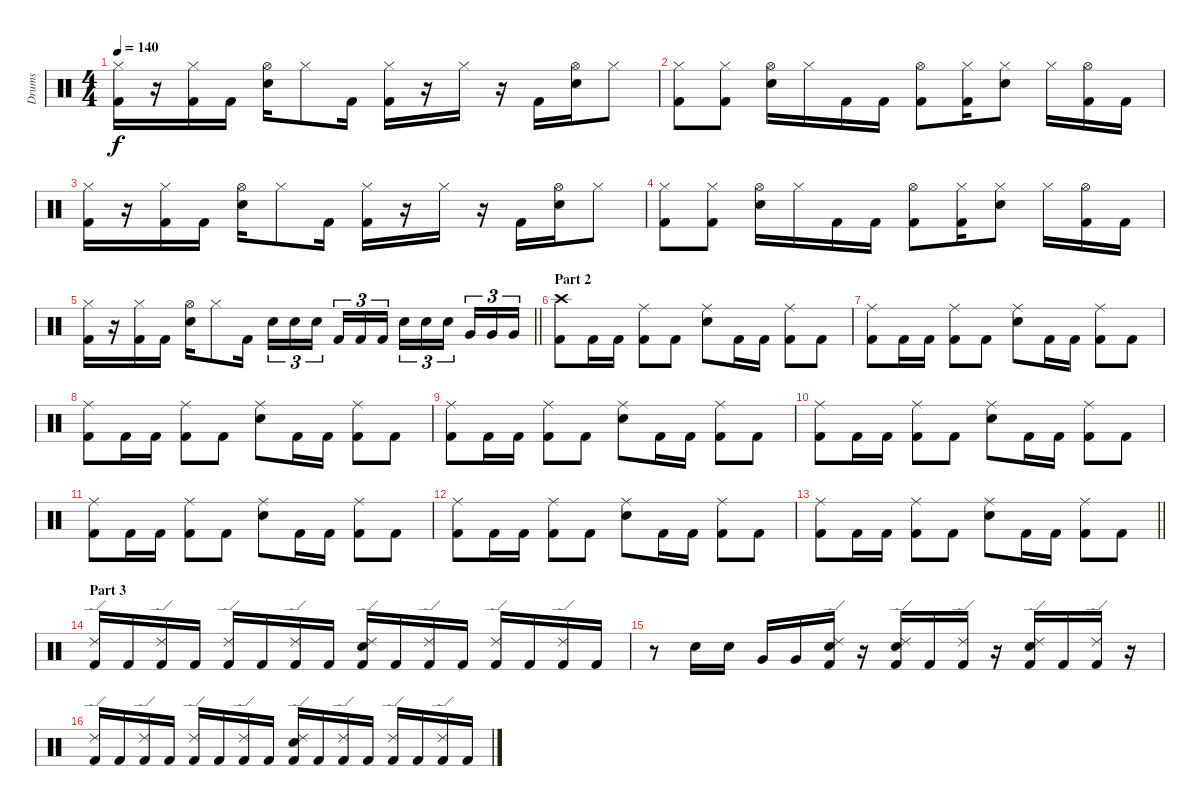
\track ("Drums" "Drums") {instrument percussion}
\staff {score}
\articulation defaults
\ts (4 4)
\tempo 140
\clef neutral
\ks c
("Hi-Hat (closed)" "Kick (hit) 2").16{dy f} r.16 ("Hi-Hat (closed)" "Kick (hit) 2").16 "Kick (hit) 2".16 ("Hi-Hat (open)" "Electric Snare (hit)").16 "Hi-Hat (closed)".8 "Kick (hit) 2".16 ("Hi-Hat (closed)" "Kick (hit) 2").16 r.16 "Hi-Hat (closed)".16 r.16 "Kick (hit) 2".16 ("Hi-Hat (open)" "Electric Snare (hit)").16 "Hi-Hat (closed)".8 |
("Hi-Hat (closed)" "Kick (hit) 2").8 ("Hi-Hat (closed)" "Kick (hit) 2").8 ("Hi-Hat (open)" "Electric Snare (hit)").16 "Hi-Hat (closed)".16 "Kick (hit) 2".16 "Kick (hit) 2".16 ("Hi-Hat (open)" "Kick (hit) 2").8 ("Hi-Hat (closed)" "Kick (hit) 2").16 ("Hi-Hat (closed)" "Electric Snare (hit)").8 "Hi-Hat (closed)".16 ("Hi-Hat (open)" "Kick (hit) 2").16 "Kick (hit) 2".16 |
("Hi-Hat (closed)" "Kick (hit) 2").16 r.16 ("Hi-Hat (closed)" "Kick (hit) 2").16 "Kick (hit) 2".16 ("Hi-Hat (open)" "Electric Snare (hit)").16 "Hi-Hat (closed)".8 "Kick (hit) 2".16 ("Hi-Hat (closed)" "Kick (hit) 2").16 r.16 "Hi-Hat (closed)".16 r.16 "Kick (hit) 2".16 ("Hi-Hat (open)" "Electric Snare (hit)").16 "Hi-Hat (closed)".8 |
("Hi-Hat (closed)" "Kick (hit) 2").8 ("Hi-Hat (closed)" "Kick (hit) 2").8 ("Hi-Hat (open)" "Electric Snare (hit)").16 "Hi-Hat (closed)".16 "Kick (hit) 2".16 "Kick (hit) 2".16 ("Hi-Hat (open)" "Kick (hit) 2").8 ("Hi-Hat (closed)" "Kick (hit) 2").16 ("Hi-Hat (closed)" "Electric Snare (hit)").8 "Hi-Hat (closed)".16 ("Hi-Hat (open)" "Kick (hit) 2").16 "Kick (hit) 2".16 |
\barLineRight lightlight
("Hi-Hat (closed)" "Kick (hit) 2").16 r.16 ("Hi-Hat (closed)" "Kick (hit) 2").16 "Kick (hit) 2".16 ("Hi-Hat (open)" "Electric Snare (hit)").16 "Hi-Hat (closed)".8 "Kick (hit) 2".16 "Snare (hit) 2".16{tu (3 2)} "Snare (hit) 2".16{tu (3 2)} "Snare (hit) 2".16{tu (3 2) beam splitsecondary} "Kick (hit) 2".16{tu (3 2)} "Kick (hit) 2".16{tu (3 2)} "Kick (hit) 2".16{tu (3 2)} "Snare (hit) 2".16{tu (3 2)} "Snare (hit) 2".16{tu (3 2)} "Snare (hit) 2".16{tu (3 2) beam splitsecondary} "Very Low Tom (hit)".16{tu (3 2)} "Very Low Tom (hit)".16{tu (3 2)} "Very Low Tom (hit)".16{tu (3 2)} |
\section ("" "Part 2")
("Crash high (hit)" "Kick (hit) 2").8 "Kick (hit) 2".16 "Kick (hit) 2".16 ("Ride (middle)" "Kick (hit) 2").8 "Kick (hit) 2".8 ("Ride (middle)" "Snare (hit) 2").8 "Kick (hit) 2".16 "Kick (hit) 2".16 ("Ride (middle)" "Kick (hit) 2").8 "Kick (hit) 2".8 |
("Ride (middle)" "Kick (hit) 2").8 "Kick (hit) 2".16 "Kick (hit) 2".16 ("Ride (middle)" "Kick (hit) 2").8 "Kick (hit) 2".8 ("Ride (middle)" "Snare (hit) 2").8 "Kick (hit) 2".16 "Kick (hit) 2".16 ("Ride (middle)" "Kick (hit) 2").8 "Kick (hit) 2".8 |
("Ride (middle)" "Kick (hit) 2").8 "Kick (hit) 2".16 "Kick (hit) 2".16 ("Ride (middle)" "Kick (hit) 2").8 "Kick (hit) 2".8 ("Ride (middle)" "Snare (hit) 2").8 "Kick (hit) 2".16 "Kick (hit) 2".16 ("Ride (middle)" "Kick (hit) 2").8 "Kick (hit) 2".8 |
("Ride (middle)" "Kick (hit) 2").8 "Kick (hit) 2".16 "Kick (hit) 2".16 ("Ride (middle)" "Kick (hit) 2").8 "Kick (hit) 2".8 ("Ride (middle)" "Snare (hit) 2").8 "Kick (hit) 2".16 "Kick (hit) 2".16 ("Ride (middle)" "Kick (hit) 2").8 "Kick (hit) 2".8 |
("Ride (middle)" "Kick (hit) 2").8 "Kick (hit) 2".16 "Kick (hit) 2".16 ("Ride (middle)" "Kick (hit) 2").8 "Kick (hit) 2".8 ("Ride (middle)" "Snare (hit) 2").8 "Kick (hit) 2".16 "Kick (hit) 2".16 ("Ride (middle)" "Kick (hit) 2").8 "Kick (hit) 2".8 |
("Ride (middle)" "Kick (hit) 2").8 "Kick (hit) 2".16 "Kick (hit) 2".16 ("Ride (middle)" "Kick (hit) 2").8 "Kick (hit) 2".8 ("Ride (middle)" "Snare (hit) 2").8 "Kick (hit) 2".16 "Kick (hit) 2".16 ("Ride (middle)" "Kick (hit) 2").8 "Kick (hit) 2".8 |
("Ride (middle)" "Kick (hit) 2").8 "Kick (hit) 2".16 "Kick (hit) 2".16 ("Ride (middle)" "Kick (hit) 2").8 "Kick (hit) 2".8 ("Ride (middle)" "Snare (hit) 2").8 "Kick (hit) 2".16 "Kick (hit) 2".16 ("Ride (middle)" "Kick (hit) 2").8 "Kick (hit) 2".8 |
\barLineRight lightlight
("Ride (middle)" "Kick (hit) 2").8 "Kick (hit) 2".16 "Kick (hit) 2".16 ("Ride (middle)" "Kick (hit) 2").8 "Kick (hit) 2".8 ("Ride (middle)" "Snare (hit) 2").8 "Kick (hit) 2".16 "Kick (hit) 2".16 ("Ride (middle)" "Kick (hit) 2").8 "Kick (hit) 2".8 |
\section ("" "Part 3")
("Ride (edge) 2" "Kick (hit) 2").16 "Kick (hit) 2".16 ("Ride (edge) 2" "Kick (hit) 2").16 "Kick (hit) 2".16 ("Ride (edge) 2" "Kick (hit) 2").16 "Kick (hit) 2".16 ("Ride (edge) 2" "Kick (hit) 2").16 "Kick (hit) 2".16 ("Ride (edge) 2" "Snare (hit) 2" "Kick (hit) 2").16 "Kick (hit) 2".16 ("Ride (edge) 2" "Kick (hit) 2").16 "Kick (hit) 2".16 ("Ride (edge) 2" "Kick (hit) 2").16 "Kick (hit) 2".16 ("Ride (edge) 2" "Kick (hit) 2").16 "Kick (hit) 2".16 |
r.8 "Snare (hit) 2".16 "Snare (hit) 2".16 "Very Low Tom (hit)".16 "Very Low Tom (hit)".16 ("Ride (edge) 2" "Snare (hit) 2" "Kick (hit) 2").16 r.16 ("Ride (edge) 2" "Snare (hit) 2" "Kick (hit) 2").16 "Kick (hit) 2".16 ("Ride (edge) 2" "Kick (hit) 2").16 r.16 ("Ride (edge) 2" "Snare (hit) 2" "Kick (hit) 2").16 "Kick (hit) 2".16 ("Ride (edge) 2" "Kick (hit) 2").16 r.16 |
("Ride (edge) 2" "Kick (hit) 2").16 "Kick (hit) 2".16 ("Ride (edge) 2" "Kick (hit) 2").16 "Kick (hit) 2".16 ("Ride (edge) 2" "Kick (hit) 2").16 "Kick (hit) 2".16 ("Ride (edge) 2" "Kick (hit) 2").16 "Kick (hit) 2".16 ("Ride (edge) 2" "Snare (hit) 2" "Kick (hit) 2").16 "Kick (hit) 2".16 ("Ride (edge) 2" "Kick (hit) 2").16 "Kick (hit) 2".16 ("Ride (edge) 2" "Kick (hit) 2").16 "Kick (hit) 2".16 ("Ride (edge) 2" "Kick (hit) 2").16 "Kick (hit) 2".16
